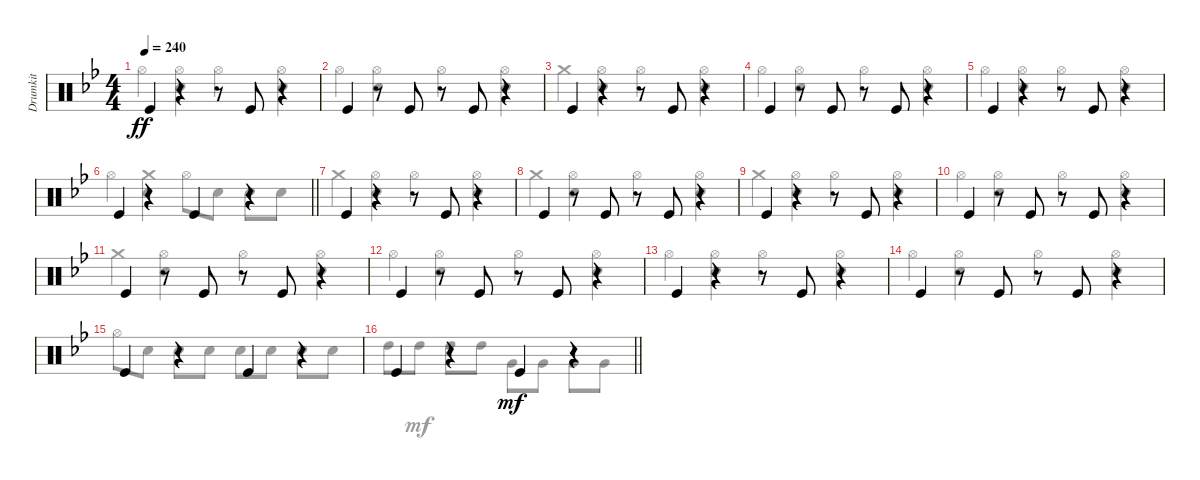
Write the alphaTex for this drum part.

\track ("Drumkit" "Drumkit") {instrument percussion}
\staff {score}
\articulation defaults
\voice
\ts (4 4)
\tempo 240
\clef neutral
\ks bb "Kick (hit)".4{dy ff}
r.4 r.8 "Kick (hit)".8 r.4 |
"Kick (hit)".4 r.8 "Kick (hit)".8 r.8 "Kick (hit)".8 r.4 |
"Kick (hit)".4 r.4 r.8 "Kick (hit)".8 r.4 |
"Kick (hit)".4 r.8 "Kick (hit)".8 r.8 "Kick (hit)".8 r.4 |
"Kick (hit)".4 r.4 r.8 "Kick (hit)".8 r.4 |
\barLineRight lightlight "Kick (hit)".4
r.4 "Kick (hit)".4 r.4 |
\section ("" "")
"Kick (hit)".4 r.4 r.8 "Kick (hit)".8 r.4 |
"Kick (hit)".4 r.8 "Kick (hit)".8 r.8 "Kick (hit)".8 r.4 |
"Kick (hit)".4 r.4 r.8 "Kick (hit)".8 r.4 |
"Kick (hit)".4 r.8 "Kick (hit)".8 r.8 "Kick (hit)".8 r.4 |
"Kick (hit)".4 r.8 "Kick (hit)".8 r.8 "Kick (hit)".8 r.4 |
"Kick (hit)".4 r.8 "Kick (hit)".8 r.8 "Kick (hit)".8 r.4 |
"Kick (hit)".4 r.4 r.8 "Kick (hit)".8 r.4 |
"Kick (hit)".4 r.8 "Kick (hit)".8 r.8 "Kick (hit)".8 r.4 |
"Kick (hit)".4 r.4 "Kick (hit)".4 r.4 |
\barLineRight lightlight "Kick (hit)".4
r.4 "Kick (hit)".4{dy mf} r.4
\voice
\clef neutral
\ottava regular
\simile none
\ks bb "Hi-Hat (open)".4{dy ff}
("Hi-Hat (open)" "Snare (hit) 2").4 "Hi-Hat (open)".4 ("Hi-Hat (open)" "Snare (hit) 2").4 |
"Hi-Hat (open)".4 ("Hi-Hat (open)" "Snare (hit) 2").4 "Hi-Hat (open)".4 ("Hi-Hat (open)" "Snare (hit) 2").4 |
"Crash medium (hit)".4 ("Hi-Hat (open)" "Snare (hit) 2").4 "Hi-Hat (open)".4 ("Hi-Hat (open)" "Snare (hit) 2").4 |
"Hi-Hat (open)".4 ("Hi-Hat (open)" "Snare (hit) 2").4 "Hi-Hat (open)".4 ("Hi-Hat (open)" "Snare (hit) 2").4 |
"Hi-Hat (open)".4 ("Hi-Hat (open)" "Snare (hit) 2").4 "Hi-Hat (open)".4 ("Hi-Hat (open)" "Snare (hit) 2").4 |
\barLineRight lightlight "Hi-Hat (open)".4
("Snare (hit) 2" "Crash medium (hit)").4 "Hi-Hat (open)".8 "Snare (hit) 2".8 "Snare (hit) 2".8 "Snare (hit) 2".8 |
"Crash medium (hit)".4 ("Hi-Hat (open)" "Snare (hit) 2").4 "Hi-Hat (open)".4 ("Hi-Hat (open)" "Snare (hit) 2").4 |
"Crash medium (hit)".4 ("Hi-Hat (open)" "Snare (hit) 2").4 "Hi-Hat (open)".4 ("Hi-Hat (open)" "Snare (hit) 2").4 |
"Crash medium (hit)".4 ("Hi-Hat (open)" "Snare (hit) 2").4 "Hi-Hat (open)".4 ("Hi-Hat (open)" "Snare (hit) 2").4 |
"Hi-Hat (open)".4 ("Hi-Hat (open)" "Snare (hit) 2").4 "Hi-Hat (open)".4 ("Hi-Hat (open)" "Snare (hit) 2").4 |
"Crash medium (hit)".4 ("Hi-Hat (open)" "Snare (hit) 2").4 "Hi-Hat (open)".4 ("Hi-Hat (open)" "Snare (hit) 2").4 |
"Hi-Hat (open)".4 ("Hi-Hat (open)" "Snare (hit) 2").4 "Hi-Hat (open)".4 ("Hi-Hat (open)" "Snare (hit) 2").4 |
"Hi-Hat (open)".4 ("Hi-Hat (open)" "Snare (hit) 2").4 "Hi-Hat (open)".4 ("Hi-Hat (open)" "Snare (hit) 2").4 |
"Hi-Hat (open)".4 ("Hi-Hat (open)" "Snare (hit) 2").4 "Hi-Hat (open)".4 ("Hi-Hat (open)" "Snare (hit) 2").4 |
"Hi-Hat (open)".8 "Snare (hit) 2".8 "Snare (hit) 2".8 "Snare (hit) 2".8 "Snare (hit) 2".8 "Snare (hit) 2".8 "Snare (hit) 2".8 "Snare (hit) 2".8 |
\barLineRight lightlight "High Tom (hit)".8 "High Tom (hit)".8{dy mf} "High Tom (hit)".8 "High Tom (hit)".8 "Very Low Tom (hit)".8 "Very Low Tom (hit)".8 "Very Low Tom (hit)".8 "Very Low Tom (hit)".8
